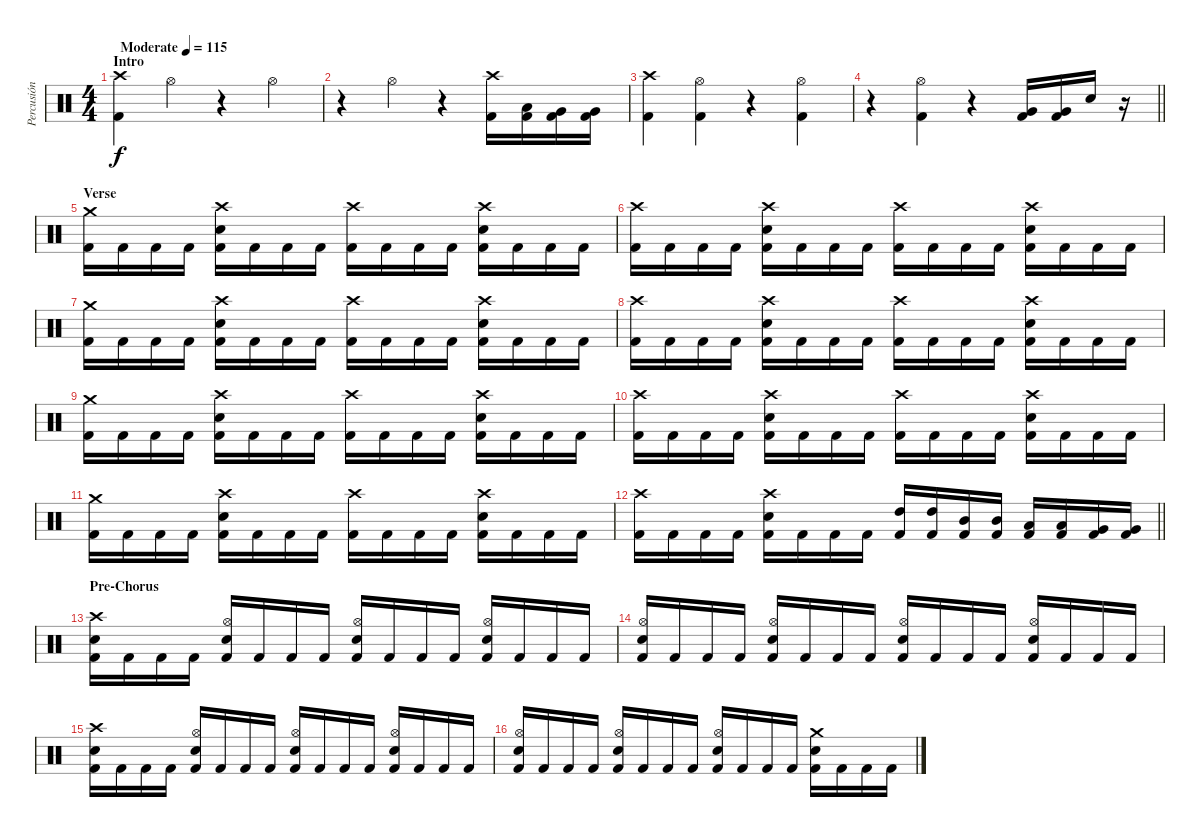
\track ("Percusión" "Percusión") {instrument percussion}
\staff {score}
\articulation defaults
\ts (4 4)
\section ("" "Intro")
\tempo (115 "Moderate")
\clef neutral
\ks c
("Crash high (hit)" "Kick (hit) 2").4{dy f} "Hi-Hat (open)".4 r.4 "Hi-Hat (open)".4 |
r.4 "Hi-Hat (open)".4 r.4 ("Crash high (hit)" "Kick (hit) 2").16 ("Low Tom (hit)" "Kick (hit) 2").16 ("Very Low Tom (hit)" "Kick (hit) 2").16 ("Very Low Tom (hit)" "Kick (hit) 2").16 |
("Crash high (hit)" "Kick (hit) 2").4 ("Hi-Hat (open)" "Kick (hit) 2").4 r.4 ("Hi-Hat (open)" "Kick (hit) 2").4 |
\barLineRight lightlight
r.4 ("Hi-Hat (open)" "Kick (hit) 2").4 r.4 ("Very Low Tom (hit)" "Kick (hit) 2").16 ("Very Low Tom (hit)" "Kick (hit) 2").16 "Snare (hit) 2".16 r.16 |
\section ("" "Verse")
("Crash medium (hit)" "Kick (hit) 2").16 "Kick (hit) 2".16 "Kick (hit) 2".16 "Kick (hit) 2".16 ("Crash high (hit)" "Snare (hit) 2" "Kick (hit) 2").16 "Kick (hit) 2".16 "Kick (hit) 2".16 "Kick (hit) 2".16 ("Crash high (hit)" "Kick (hit) 2").16 "Kick (hit) 2".16 "Kick (hit) 2".16 "Kick (hit) 2".16 ("Crash high (hit)" "Snare (hit) 2" "Kick (hit) 2").16 "Kick (hit) 2".16 "Kick (hit) 2".16 "Kick (hit) 2".16 |
("Crash high (hit)" "Kick (hit) 2").16 "Kick (hit) 2".16 "Kick (hit) 2".16 "Kick (hit) 2".16 ("Crash high (hit)" "Snare (hit) 2" "Kick (hit) 2").16 "Kick (hit) 2".16 "Kick (hit) 2".16 "Kick (hit) 2".16 ("Crash high (hit)" "Kick (hit) 2").16 "Kick (hit) 2".16 "Kick (hit) 2".16 "Kick (hit) 2".16 ("Crash high (hit)" "Snare (hit) 2" "Kick (hit) 2").16 "Kick (hit) 2".16 "Kick (hit) 2".16 "Kick (hit) 2".16 |
("Crash medium (hit)" "Kick (hit) 2").16 "Kick (hit) 2".16 "Kick (hit) 2".16 "Kick (hit) 2".16 ("Crash high (hit)" "Snare (hit) 2" "Kick (hit) 2").16 "Kick (hit) 2".16 "Kick (hit) 2".16 "Kick (hit) 2".16 ("Crash high (hit)" "Kick (hit) 2").16 "Kick (hit) 2".16 "Kick (hit) 2".16 "Kick (hit) 2".16 ("Crash high (hit)" "Snare (hit) 2" "Kick (hit) 2").16 "Kick (hit) 2".16 "Kick (hit) 2".16 "Kick (hit) 2".16 |
("Crash high (hit)" "Kick (hit) 2").16 "Kick (hit) 2".16 "Kick (hit) 2".16 "Kick (hit) 2".16 ("Crash high (hit)" "Snare (hit) 2" "Kick (hit) 2").16 "Kick (hit) 2".16 "Kick (hit) 2".16 "Kick (hit) 2".16 ("Crash high (hit)" "Kick (hit) 2").16 "Kick (hit) 2".16 "Kick (hit) 2".16 "Kick (hit) 2".16 ("Crash high (hit)" "Snare (hit) 2" "Kick (hit) 2").16 "Kick (hit) 2".16 "Kick (hit) 2".16 "Kick (hit) 2".16 |
("Crash medium (hit)" "Kick (hit) 2").16 "Kick (hit) 2".16 "Kick (hit) 2".16 "Kick (hit) 2".16 ("Crash high (hit)" "Snare (hit) 2" "Kick (hit) 2").16 "Kick (hit) 2".16 "Kick (hit) 2".16 "Kick (hit) 2".16 ("Crash high (hit)" "Kick (hit) 2").16 "Kick (hit) 2".16 "Kick (hit) 2".16 "Kick (hit) 2".16 ("Crash high (hit)" "Snare (hit) 2" "Kick (hit) 2").16 "Kick (hit) 2".16 "Kick (hit) 2".16 "Kick (hit) 2".16 |
("Crash high (hit)" "Kick (hit) 2").16 "Kick (hit) 2".16 "Kick (hit) 2".16 "Kick (hit) 2".16 ("Crash high (hit)" "Snare (hit) 2" "Kick (hit) 2").16 "Kick (hit) 2".16 "Kick (hit) 2".16 "Kick (hit) 2".16 ("Crash high (hit)" "Kick (hit) 2").16 "Kick (hit) 2".16 "Kick (hit) 2".16 "Kick (hit) 2".16 ("Crash high (hit)" "Snare (hit) 2" "Kick (hit) 2").16 "Kick (hit) 2".16 "Kick (hit) 2".16 "Kick (hit) 2".16 |
("Crash medium (hit)" "Kick (hit) 2").16 "Kick (hit) 2".16 "Kick (hit) 2".16 "Kick (hit) 2".16 ("Crash high (hit)" "Snare (hit) 2" "Kick (hit) 2").16 "Kick (hit) 2".16 "Kick (hit) 2".16 "Kick (hit) 2".16 ("Crash high (hit)" "Kick (hit) 2").16 "Kick (hit) 2".16 "Kick (hit) 2".16 "Kick (hit) 2".16 ("Crash high (hit)" "Snare (hit) 2" "Kick (hit) 2").16 "Kick (hit) 2".16 "Kick (hit) 2".16 "Kick (hit) 2".16 |
\barLineRight lightlight
("Crash high (hit)" "Kick (hit) 2").16 "Kick (hit) 2".16 "Kick (hit) 2".16 "Kick (hit) 2".16 ("Crash high (hit)" "Snare (hit) 2" "Kick (hit) 2").16 "Kick (hit) 2".16 "Kick (hit) 2".16 "Kick (hit) 2".16 ("High Tom (hit)" "Kick (hit) 2").16 ("High Tom (hit)" "Kick (hit) 2").16 ("Mid Tom (hit)" "Kick (hit) 2").16 ("Mid Tom (hit)" "Kick (hit) 2").16 ("Low Tom (hit)" "Kick (hit) 2").16 ("Low Tom (hit)" "Kick (hit) 2").16 ("Very Low Tom (hit)" "Kick (hit) 2").16 ("Very Low Tom (hit)" "Kick (hit) 2").16 |
\section ("" "Pre-Chorus")
("Crash high (hit)" "Snare (hit) 2" "Kick (hit) 2").16 "Kick (hit) 2".16 "Kick (hit) 2".16 "Kick (hit) 2".16 ("Hi-Hat (open)" "Snare (hit) 2" "Kick (hit) 2").16 "Kick (hit) 2".16 "Kick (hit) 2".16 "Kick (hit) 2".16 ("Hi-Hat (open)" "Snare (hit) 2" "Kick (hit) 2").16 "Kick (hit) 2".16 "Kick (hit) 2".16 "Kick (hit) 2".16 ("Hi-Hat (open)" "Snare (hit) 2" "Kick (hit) 2").16 "Kick (hit) 2".16 "Kick (hit) 2".16 "Kick (hit) 2".16 |
("Hi-Hat (open)" "Snare (hit) 2" "Kick (hit) 2").16 "Kick (hit) 2".16 "Kick (hit) 2".16 "Kick (hit) 2".16 ("Hi-Hat (open)" "Snare (hit) 2" "Kick (hit) 2").16 "Kick (hit) 2".16 "Kick (hit) 2".16 "Kick (hit) 2".16 ("Hi-Hat (open)" "Snare (hit) 2" "Kick (hit) 2").16 "Kick (hit) 2".16 "Kick (hit) 2".16 "Kick (hit) 2".16 ("Hi-Hat (open)" "Snare (hit) 2" "Kick (hit) 2").16 "Kick (hit) 2".16 "Kick (hit) 2".16 "Kick (hit) 2".16 |
("Crash high (hit)" "Snare (hit) 2" "Kick (hit) 2").16 "Kick (hit) 2".16 "Kick (hit) 2".16 "Kick (hit) 2".16 ("Hi-Hat (open)" "Snare (hit) 2" "Kick (hit) 2").16 "Kick (hit) 2".16 "Kick (hit) 2".16 "Kick (hit) 2".16 ("Hi-Hat (open)" "Snare (hit) 2" "Kick (hit) 2").16 "Kick (hit) 2".16 "Kick (hit) 2".16 "Kick (hit) 2".16 ("Hi-Hat (open)" "Snare (hit) 2" "Kick (hit) 2").16 "Kick (hit) 2".16 "Kick (hit) 2".16 "Kick (hit) 2".16 |
("Hi-Hat (open)" "Snare (hit) 2" "Kick (hit) 2").16 "Kick (hit) 2".16 "Kick (hit) 2".16 "Kick (hit) 2".16 ("Hi-Hat (open)" "Snare (hit) 2" "Kick (hit) 2").16 "Kick (hit) 2".16 "Kick (hit) 2".16 "Kick (hit) 2".16 ("Hi-Hat (open)" "Snare (hit) 2" "Kick (hit) 2").16 "Kick (hit) 2".16 "Kick (hit) 2".16 "Kick (hit) 2".16 ("Crash medium (hit)" "Snare (hit) 2" "Kick (hit) 2").16 "Kick (hit) 2".16 "Kick (hit) 2".16 "Kick (hit) 2".16
